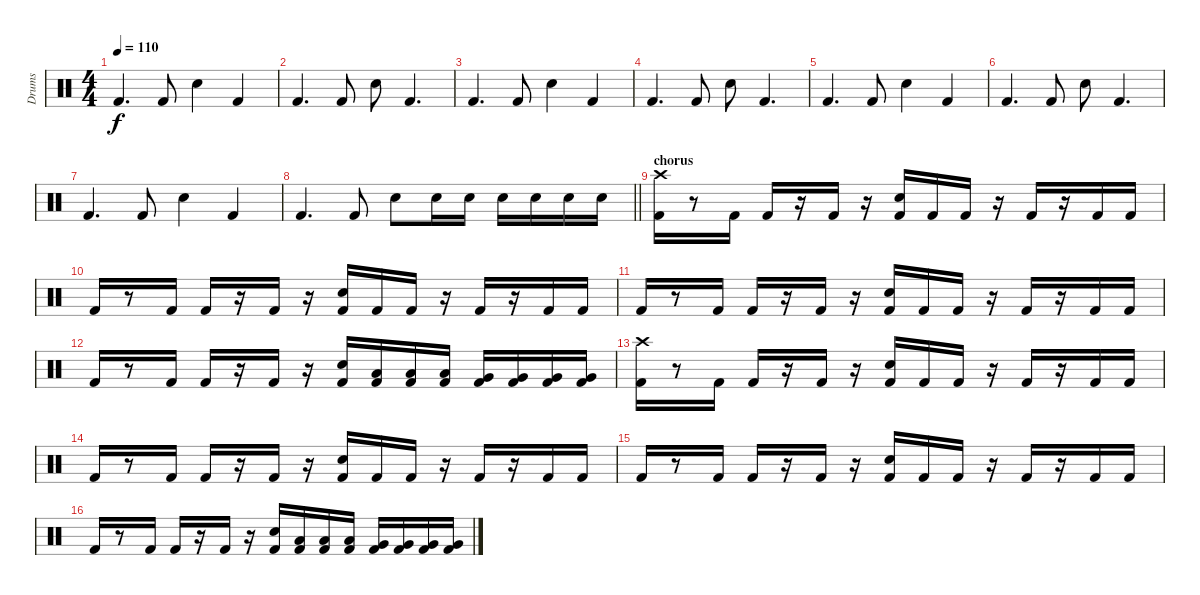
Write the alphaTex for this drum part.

\track ("Drums" "Drums") {instrument percussion}
\staff {score}
\articulation defaults
\ts (4 4)
\tempo 110
\clef neutral
\ks c "Kick (hit) 2".4{d dy f} "Kick (hit) 2".8 "Electric Snare (hit)".4 "Kick (hit) 2".4
|
"Kick (hit) 2".4{d} "Kick (hit) 2".8 "Electric Snare (hit)".8 "Kick (hit) 2".4{d} |
"Kick (hit) 2".4{d} "Kick (hit) 2".8 "Electric Snare (hit)".4 "Kick (hit) 2".4 |
"Kick (hit) 2".4{d} "Kick (hit) 2".8 "Electric Snare (hit)".8 "Kick (hit) 2".4{d} |
"Kick (hit) 2".4{d} "Kick (hit) 2".8 "Electric Snare (hit)".4 "Kick (hit) 2".4 |
"Kick (hit) 2".4{d} "Kick (hit) 2".8 "Electric Snare (hit)".8 "Kick (hit) 2".4{d} |
"Kick (hit) 2".4{d} "Kick (hit) 2".8 "Electric Snare (hit)".4 "Kick (hit) 2".4 |
\barLineRight lightlight "Kick (hit) 2".4{d} "Kick (hit) 2".8 "Electric Snare (hit)".8 "Electric Snare (hit)".16 "Electric Snare (hit)".16 "Electric Snare (hit)".16 "Electric Snare (hit)".16 "Electric Snare (hit)".16 "Electric Snare (hit)".16
|
\section ("" "chorus")
("Crash high (hit)" "Kick (hit) 2").16 r.8 "Kick (hit) 2".16 "Kick (hit) 2".16 r.16 "Kick (hit) 2".16 r.16 ("Electric Snare (hit)" "Kick (hit) 2").16 "Kick (hit) 2".16 "Kick (hit) 2".16 r.16 "Kick (hit) 2".16 r.16 "Kick (hit) 2".16 "Kick (hit) 2".16 |
"Kick (hit) 2".16 r.8 "Kick (hit) 2".16 "Kick (hit) 2".16 r.16 "Kick (hit) 2".16 r.16 ("Electric Snare (hit)" "Kick (hit) 2").16 "Kick (hit) 2".16 "Kick (hit) 2".16 r.16 "Kick (hit) 2".16 r.16 "Kick (hit) 2".16 "Kick (hit) 2".16 |
"Kick (hit) 2".16 r.8 "Kick (hit) 2".16 "Kick (hit) 2".16 r.16 "Kick (hit) 2".16 r.16 ("Electric Snare (hit)" "Kick (hit) 2").16 "Kick (hit) 2".16 "Kick (hit) 2".16 r.16 "Kick (hit) 2".16 r.16 "Kick (hit) 2".16 "Kick (hit) 2".16 |
"Kick (hit) 2".16 r.8 "Kick (hit) 2".16 "Kick (hit) 2".16 r.16 "Kick (hit) 2".16 r.16 ("Electric Snare (hit)" "Kick (hit) 2").16 ("Low Tom (hit)" "Kick (hit) 2").16 ("Low Tom (hit)" "Kick (hit) 2").16 ("Low Tom (hit)" "Kick (hit) 2").16 ("Very Low Tom (hit)" "Kick (hit) 2").16 ("Very Low Tom (hit)" "Kick (hit) 2").16 ("Very Low Tom (hit)" "Kick (hit) 2").16 ("Very Low Tom (hit)" "Kick (hit) 2").16 |
("Crash high (hit)" "Kick (hit) 2").16 r.8 "Kick (hit) 2".16 "Kick (hit) 2".16 r.16 "Kick (hit) 2".16 r.16 ("Electric Snare (hit)" "Kick (hit) 2").16 "Kick (hit) 2".16 "Kick (hit) 2".16 r.16 "Kick (hit) 2".16 r.16 "Kick (hit) 2".16 "Kick (hit) 2".16 |
"Kick (hit) 2".16 r.8 "Kick (hit) 2".16 "Kick (hit) 2".16 r.16 "Kick (hit) 2".16 r.16 ("Electric Snare (hit)" "Kick (hit) 2").16 "Kick (hit) 2".16 "Kick (hit) 2".16 r.16 "Kick (hit) 2".16 r.16 "Kick (hit) 2".16 "Kick (hit) 2".16 |
"Kick (hit) 2".16 r.8 "Kick (hit) 2".16 "Kick (hit) 2".16 r.16 "Kick (hit) 2".16 r.16 ("Electric Snare (hit)" "Kick (hit) 2").16 "Kick (hit) 2".16 "Kick (hit) 2".16 r.16 "Kick (hit) 2".16 r.16 "Kick (hit) 2".16 "Kick (hit) 2".16 |
"Kick (hit) 2".16 r.8 "Kick (hit) 2".16 "Kick (hit) 2".16 r.16 "Kick (hit) 2".16 r.16 ("Electric Snare (hit)" "Kick (hit) 2").16 ("Low Tom (hit)" "Kick (hit) 2").16 ("Low Tom (hit)" "Kick (hit) 2").16 ("Low Tom (hit)" "Kick (hit) 2").16 ("Very Low Tom (hit)" "Kick (hit) 2").16 ("Very Low Tom (hit)" "Kick (hit) 2").16 ("Very Low Tom (hit)" "Kick (hit) 2").16 ("Very Low Tom (hit)" "Kick (hit) 2").16
